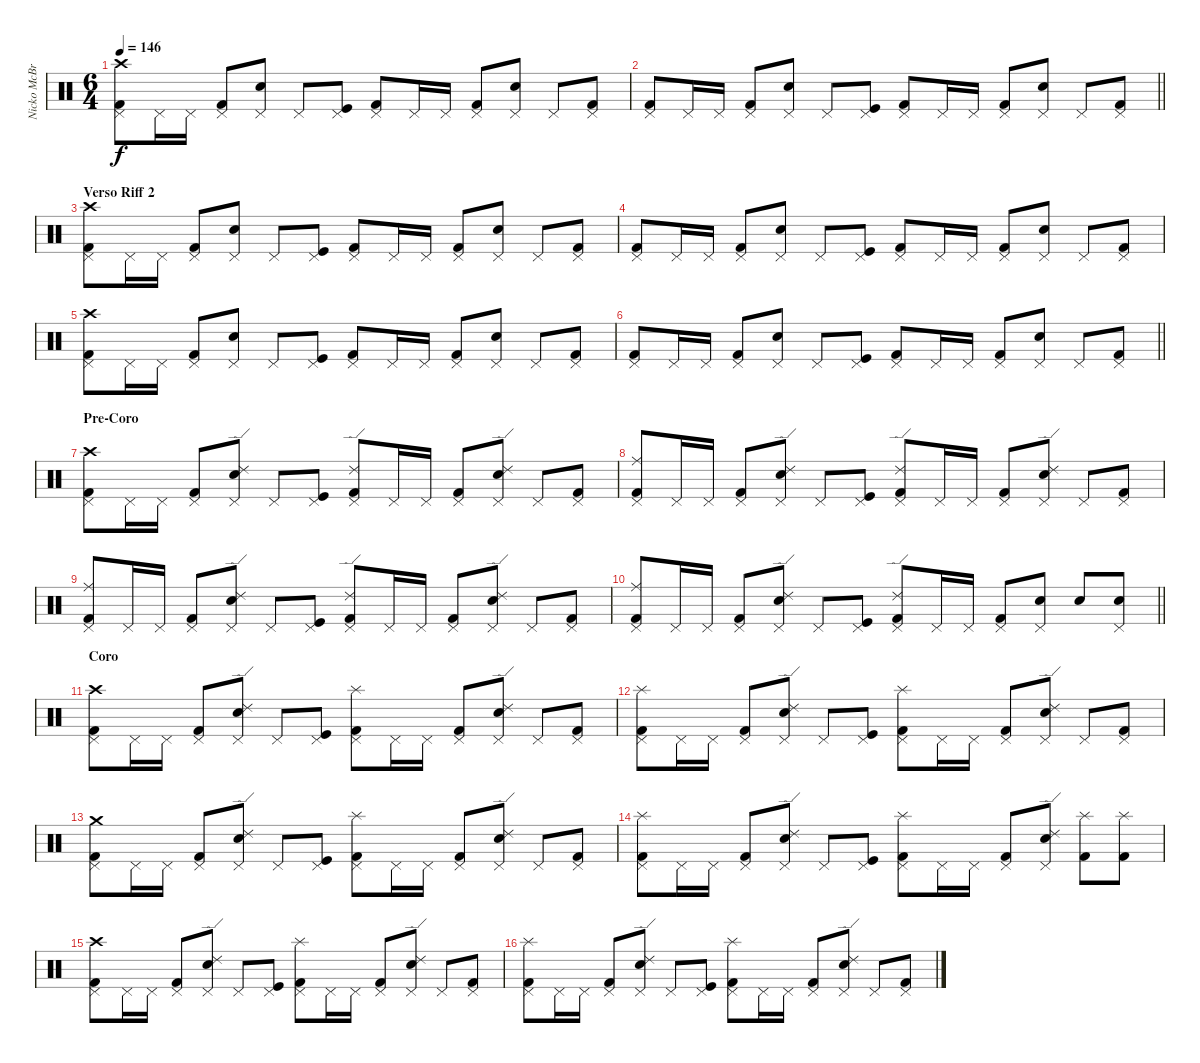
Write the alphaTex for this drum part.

\track ("Nicko McBrain" "Nicko McBr") {instrument percussion}
\staff {score}
\articulation defaults
\ts (6 4)
\tempo 146
\clef neutral
\ks c
("Kick (hit) 2" "Pedal Hi-Hat (hit)" "Crash high (hit)").8{dy f} "Pedal Hi-Hat (hit)".16 "Pedal Hi-Hat (hit)".16 ("Kick (hit) 2" "Pedal Hi-Hat (hit)").8 ("Snare (hit) 2" "Pedal Hi-Hat (hit)").8 "Pedal Hi-Hat (hit)".8 ("Kick (hit)" "Pedal Hi-Hat (hit)").8 ("Kick (hit) 2" "Pedal Hi-Hat (hit)").8 "Pedal Hi-Hat (hit)".16 "Pedal Hi-Hat (hit)".16 ("Kick (hit) 2" "Pedal Hi-Hat (hit)").8 ("Snare (hit) 2" "Pedal Hi-Hat (hit)").8 "Pedal Hi-Hat (hit)".8 ("Kick (hit) 2" "Pedal Hi-Hat (hit)").8 |
\barLineRight lightlight
("Kick (hit) 2" "Pedal Hi-Hat (hit)").8 "Pedal Hi-Hat (hit)".16 "Pedal Hi-Hat (hit)".16 ("Kick (hit) 2" "Pedal Hi-Hat (hit)").8 ("Snare (hit) 2" "Pedal Hi-Hat (hit)").8 "Pedal Hi-Hat (hit)".8 ("Kick (hit)" "Pedal Hi-Hat (hit)").8 ("Kick (hit) 2" "Pedal Hi-Hat (hit)").8 "Pedal Hi-Hat (hit)".16 "Pedal Hi-Hat (hit)".16 ("Kick (hit) 2" "Pedal Hi-Hat (hit)").8 ("Snare (hit) 2" "Pedal Hi-Hat (hit)").8 "Pedal Hi-Hat (hit)".8 ("Kick (hit) 2" "Pedal Hi-Hat (hit)").8 |
\section ("" "Verso Riff 2")
("Kick (hit) 2" "Pedal Hi-Hat (hit)" "Crash high (hit)").8 "Pedal Hi-Hat (hit)".16 "Pedal Hi-Hat (hit)".16 ("Kick (hit) 2" "Pedal Hi-Hat (hit)").8 ("Snare (hit) 2" "Pedal Hi-Hat (hit)").8 "Pedal Hi-Hat (hit)".8 ("Kick (hit)" "Pedal Hi-Hat (hit)").8 ("Kick (hit) 2" "Pedal Hi-Hat (hit)").8 "Pedal Hi-Hat (hit)".16 "Pedal Hi-Hat (hit)".16 ("Kick (hit) 2" "Pedal Hi-Hat (hit)").8 ("Snare (hit) 2" "Pedal Hi-Hat (hit)").8 "Pedal Hi-Hat (hit)".8 ("Kick (hit) 2" "Pedal Hi-Hat (hit)").8 |
("Kick (hit) 2" "Pedal Hi-Hat (hit)").8 "Pedal Hi-Hat (hit)".16 "Pedal Hi-Hat (hit)".16 ("Kick (hit) 2" "Pedal Hi-Hat (hit)").8 ("Snare (hit) 2" "Pedal Hi-Hat (hit)").8 "Pedal Hi-Hat (hit)".8 ("Kick (hit)" "Pedal Hi-Hat (hit)").8 ("Kick (hit) 2" "Pedal Hi-Hat (hit)").8 "Pedal Hi-Hat (hit)".16 "Pedal Hi-Hat (hit)".16 ("Kick (hit) 2" "Pedal Hi-Hat (hit)").8 ("Snare (hit) 2" "Pedal Hi-Hat (hit)").8 "Pedal Hi-Hat (hit)".8 ("Kick (hit) 2" "Pedal Hi-Hat (hit)").8 |
("Kick (hit) 2" "Pedal Hi-Hat (hit)" "Crash high (hit)").8 "Pedal Hi-Hat (hit)".16 "Pedal Hi-Hat (hit)".16 ("Kick (hit) 2" "Pedal Hi-Hat (hit)").8 ("Snare (hit) 2" "Pedal Hi-Hat (hit)").8 "Pedal Hi-Hat (hit)".8 ("Kick (hit)" "Pedal Hi-Hat (hit)").8 ("Kick (hit) 2" "Pedal Hi-Hat (hit)").8 "Pedal Hi-Hat (hit)".16 "Pedal Hi-Hat (hit)".16 ("Kick (hit) 2" "Pedal Hi-Hat (hit)").8 ("Snare (hit) 2" "Pedal Hi-Hat (hit)").8 "Pedal Hi-Hat (hit)".8 ("Kick (hit) 2" "Pedal Hi-Hat (hit)").8 |
\barLineRight lightlight
("Kick (hit) 2" "Pedal Hi-Hat (hit)").8 "Pedal Hi-Hat (hit)".16 "Pedal Hi-Hat (hit)".16 ("Kick (hit) 2" "Pedal Hi-Hat (hit)").8 ("Snare (hit) 2" "Pedal Hi-Hat (hit)").8 "Pedal Hi-Hat (hit)".8 ("Kick (hit)" "Pedal Hi-Hat (hit)").8 ("Kick (hit) 2" "Pedal Hi-Hat (hit)").8 "Pedal Hi-Hat (hit)".16 "Pedal Hi-Hat (hit)".16 ("Kick (hit) 2" "Pedal Hi-Hat (hit)").8 ("Snare (hit) 2" "Pedal Hi-Hat (hit)").8 "Pedal Hi-Hat (hit)".8 ("Kick (hit) 2" "Pedal Hi-Hat (hit)").8 |
\section ("" "Pre-Coro")
("Kick (hit) 2" "Pedal Hi-Hat (hit)" "Crash high (hit)").8 "Pedal Hi-Hat (hit)".16 "Pedal Hi-Hat (hit)".16 ("Kick (hit) 2" "Pedal Hi-Hat (hit)").8 ("Snare (hit) 2" "Pedal Hi-Hat (hit)" "Ride (edge) 2").8 "Pedal Hi-Hat (hit)".8 ("Kick (hit)" "Pedal Hi-Hat (hit)").8 ("Kick (hit) 2" "Pedal Hi-Hat (hit)" "Ride (edge) 2").8 "Pedal Hi-Hat (hit)".16 "Pedal Hi-Hat (hit)".16 ("Kick (hit) 2" "Pedal Hi-Hat (hit)").8 ("Snare (hit) 2" "Pedal Hi-Hat (hit)" "Ride (edge) 2").8 "Pedal Hi-Hat (hit)".8 ("Kick (hit) 2" "Pedal Hi-Hat (hit)").8 |
("Kick (hit) 2" "Pedal Hi-Hat (hit)" "Ride (middle)").8 "Pedal Hi-Hat (hit)".16 "Pedal Hi-Hat (hit)".16 ("Kick (hit) 2" "Pedal Hi-Hat (hit)").8 ("Snare (hit) 2" "Pedal Hi-Hat (hit)" "Ride (edge) 2").8 "Pedal Hi-Hat (hit)".8 ("Kick (hit)" "Pedal Hi-Hat (hit)").8 ("Kick (hit) 2" "Pedal Hi-Hat (hit)" "Ride (edge) 2").8 "Pedal Hi-Hat (hit)".16 "Pedal Hi-Hat (hit)".16 ("Kick (hit) 2" "Pedal Hi-Hat (hit)").8 ("Snare (hit) 2" "Pedal Hi-Hat (hit)" "Ride (edge) 2").8 "Pedal Hi-Hat (hit)".8 ("Kick (hit) 2" "Pedal Hi-Hat (hit)").8 |
("Kick (hit) 2" "Pedal Hi-Hat (hit)" "Ride (middle)").8 "Pedal Hi-Hat (hit)".16 "Pedal Hi-Hat (hit)".16 ("Kick (hit) 2" "Pedal Hi-Hat (hit)").8 ("Snare (hit) 2" "Pedal Hi-Hat (hit)" "Ride (edge) 2").8 "Pedal Hi-Hat (hit)".8 ("Kick (hit)" "Pedal Hi-Hat (hit)").8 ("Kick (hit) 2" "Pedal Hi-Hat (hit)" "Ride (edge) 2").8 "Pedal Hi-Hat (hit)".16 "Pedal Hi-Hat (hit)".16 ("Kick (hit) 2" "Pedal Hi-Hat (hit)").8 ("Snare (hit) 2" "Pedal Hi-Hat (hit)" "Ride (edge) 2").8 "Pedal Hi-Hat (hit)".8 ("Kick (hit) 2" "Pedal Hi-Hat (hit)").8 |
\barLineRight lightlight
("Kick (hit) 2" "Pedal Hi-Hat (hit)" "Ride (middle)").8 "Pedal Hi-Hat (hit)".16 "Pedal Hi-Hat (hit)".16 ("Kick (hit) 2" "Pedal Hi-Hat (hit)").8 ("Snare (hit) 2" "Pedal Hi-Hat (hit)" "Ride (edge) 2").8 "Pedal Hi-Hat (hit)".8 ("Kick (hit)" "Pedal Hi-Hat (hit)").8 ("Kick (hit) 2" "Pedal Hi-Hat (hit)" "Ride (edge) 2").8 "Pedal Hi-Hat (hit)".16 "Pedal Hi-Hat (hit)".16 ("Kick (hit) 2" "Pedal Hi-Hat (hit)").8 ("Snare (hit) 2" "Pedal Hi-Hat (hit)").8 "Snare (hit) 2".8 ("Snare (hit) 2" "Pedal Hi-Hat (hit)").8 |
\section ("" "Coro")
("Kick (hit) 2" "Pedal Hi-Hat (hit)" "Crash high (hit)").8 "Pedal Hi-Hat (hit)".16 "Pedal Hi-Hat (hit)".16 ("Kick (hit) 2" "Pedal Hi-Hat (hit)").8 ("Snare (hit) 2" "Pedal Hi-Hat (hit)" "Ride (edge) 2").8 "Pedal Hi-Hat (hit)".8 ("Kick (hit)" "Pedal Hi-Hat (hit)").8 ("Kick (hit) 2" "Pedal Hi-Hat (hit)" "Splash (hit)").8 "Pedal Hi-Hat (hit)".16 "Pedal Hi-Hat (hit)".16 ("Kick (hit) 2" "Pedal Hi-Hat (hit)").8 ("Snare (hit) 2" "Pedal Hi-Hat (hit)" "Ride (edge) 2").8 "Pedal Hi-Hat (hit)".8 ("Kick (hit) 2" "Pedal Hi-Hat (hit)").8 |
("Kick (hit) 2" "Pedal Hi-Hat (hit)" "Splash (hit)").8 "Pedal Hi-Hat (hit)".16 "Pedal Hi-Hat (hit)".16 ("Kick (hit) 2" "Pedal Hi-Hat (hit)").8 ("Snare (hit) 2" "Pedal Hi-Hat (hit)" "Ride (edge) 2").8 "Pedal Hi-Hat (hit)".8 ("Kick (hit)" "Pedal Hi-Hat (hit)").8 ("Kick (hit) 2" "Pedal Hi-Hat (hit)" "Splash (hit)").8 "Pedal Hi-Hat (hit)".16 "Pedal Hi-Hat (hit)".16 ("Kick (hit) 2" "Pedal Hi-Hat (hit)").8 ("Snare (hit) 2" "Pedal Hi-Hat (hit)" "Ride (edge) 2").8 "Pedal Hi-Hat (hit)".8 ("Kick (hit) 2" "Pedal Hi-Hat (hit)").8 |
("Kick (hit) 2" "Pedal Hi-Hat (hit)" "Crash medium (hit)").8 "Pedal Hi-Hat (hit)".16 "Pedal Hi-Hat (hit)".16 ("Kick (hit) 2" "Pedal Hi-Hat (hit)").8 ("Snare (hit) 2" "Pedal Hi-Hat (hit)" "Ride (edge) 2").8 "Pedal Hi-Hat (hit)".8 ("Kick (hit)" "Pedal Hi-Hat (hit)").8 ("Kick (hit) 2" "Pedal Hi-Hat (hit)" "Splash (hit)").8 "Pedal Hi-Hat (hit)".16 "Pedal Hi-Hat (hit)".16 ("Kick (hit) 2" "Pedal Hi-Hat (hit)").8 ("Snare (hit) 2" "Pedal Hi-Hat (hit)" "Ride (edge) 2").8 "Pedal Hi-Hat (hit)".8 ("Kick (hit) 2" "Pedal Hi-Hat (hit)").8 |
("Kick (hit) 2" "Pedal Hi-Hat (hit)" "Splash (hit)").8 "Pedal Hi-Hat (hit)".16 "Pedal Hi-Hat (hit)".16 ("Kick (hit) 2" "Pedal Hi-Hat (hit)").8 ("Snare (hit) 2" "Pedal Hi-Hat (hit)" "Ride (edge) 2").8 "Pedal Hi-Hat (hit)".8 ("Kick (hit)" "Pedal Hi-Hat (hit)").8 ("Kick (hit) 2" "Pedal Hi-Hat (hit)" "Splash (hit)").8 "Pedal Hi-Hat (hit)".16 "Pedal Hi-Hat (hit)".16 ("Kick (hit) 2" "Pedal Hi-Hat (hit)").8 ("Snare (hit) 2" "Pedal Hi-Hat (hit)" "Ride (edge) 2").8 ("Kick (hit) 2" "Splash (hit)").8 ("Kick (hit) 2" "Splash (hit)").8 |
("Kick (hit) 2" "Pedal Hi-Hat (hit)" "Crash high (hit)").8 "Pedal Hi-Hat (hit)".16 "Pedal Hi-Hat (hit)".16 ("Kick (hit) 2" "Pedal Hi-Hat (hit)").8 ("Snare (hit) 2" "Pedal Hi-Hat (hit)" "Ride (edge) 2").8 "Pedal Hi-Hat (hit)".8 ("Kick (hit)" "Pedal Hi-Hat (hit)").8 ("Kick (hit) 2" "Pedal Hi-Hat (hit)" "Splash (hit)").8 "Pedal Hi-Hat (hit)".16 "Pedal Hi-Hat (hit)".16 ("Kick (hit) 2" "Pedal Hi-Hat (hit)").8 ("Snare (hit) 2" "Pedal Hi-Hat (hit)" "Ride (edge) 2").8 "Pedal Hi-Hat (hit)".8 ("Kick (hit) 2" "Pedal Hi-Hat (hit)").8 |
("Kick (hit) 2" "Pedal Hi-Hat (hit)" "Splash (hit)").8 "Pedal Hi-Hat (hit)".16 "Pedal Hi-Hat (hit)".16 ("Kick (hit) 2" "Pedal Hi-Hat (hit)").8 ("Snare (hit) 2" "Pedal Hi-Hat (hit)" "Ride (edge) 2").8 "Pedal Hi-Hat (hit)".8 ("Kick (hit)" "Pedal Hi-Hat (hit)").8 ("Kick (hit) 2" "Pedal Hi-Hat (hit)" "Splash (hit)").8 "Pedal Hi-Hat (hit)".16 "Pedal Hi-Hat (hit)".16 ("Kick (hit) 2" "Pedal Hi-Hat (hit)").8 ("Snare (hit) 2" "Pedal Hi-Hat (hit)" "Ride (edge) 2").8 "Pedal Hi-Hat (hit)".8 ("Kick (hit) 2" "Pedal Hi-Hat (hit)").8
